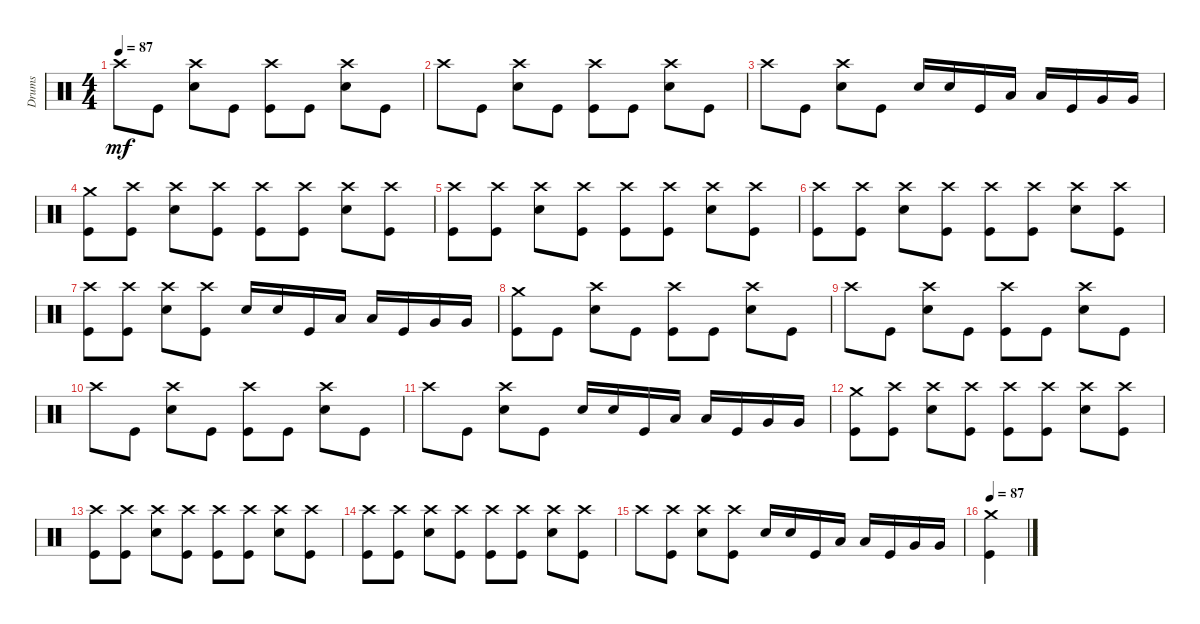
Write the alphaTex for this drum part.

\track ("Drums" "Drums") {instrument percussion}
\staff {score}
\articulation defaults
\ts (4 4)
\tempo 87
\clef neutral
\ks c "Crash high (hit)".8{dy mf} "Kick (hit)".8
("Crash high (hit)" "Electric Snare (hit)").8 "Kick (hit)".8 ("Crash high (hit)" "Kick (hit)").8 "Kick (hit)".8 ("Crash high (hit)" "Electric Snare (hit)").8 "Kick (hit)".8 |
"Crash high (hit)".8 "Kick (hit)".8 ("Crash high (hit)" "Electric Snare (hit)").8 "Kick (hit)".8 ("Crash high (hit)" "Kick (hit)").8 "Kick (hit)".8 ("Crash high (hit)" "Electric Snare (hit)").8 "Kick (hit)".8 |
"Crash high (hit)".8 "Kick (hit)".8 ("Crash high (hit)" "Electric Snare (hit)").8 "Kick (hit)".8 "Electric Snare (hit)".16 "Electric Snare (hit)".16 "Kick (hit)".16 "Low Tom (hit)".16 "Low Tom (hit)".16 "Kick (hit)".16 "Very Low Tom (hit)".16 "Very Low Tom (hit)".16 |
("Crash medium (hit)" "Kick (hit)").8{volume 13} ("Crash high (hit)" "Kick (hit)").8 ("Crash high (hit)" "Electric Snare (hit)").8 ("Crash high (hit)" "Kick (hit)").8 ("Crash high (hit)" "Kick (hit)").8 ("Crash high (hit)" "Kick (hit)").8 ("Crash high (hit)" "Electric Snare (hit)").8 ("Crash high (hit)" "Kick (hit)").8 |
("Crash high (hit)" "Kick (hit)").8 ("Crash high (hit)" "Kick (hit)").8 ("Crash high (hit)" "Electric Snare (hit)").8 ("Crash high (hit)" "Kick (hit)").8 ("Crash high (hit)" "Kick (hit)").8 ("Crash high (hit)" "Kick (hit)").8 ("Crash high (hit)" "Electric Snare (hit)").8 ("Crash high (hit)" "Kick (hit)").8 |
("Crash high (hit)" "Kick (hit)").8 ("Crash high (hit)" "Kick (hit)").8 ("Crash high (hit)" "Electric Snare (hit)").8 ("Crash high (hit)" "Kick (hit)").8 ("Crash high (hit)" "Kick (hit)").8 ("Crash high (hit)" "Kick (hit)").8 ("Crash high (hit)" "Electric Snare (hit)").8 ("Crash high (hit)" "Kick (hit)").8 |
("Crash high (hit)" "Kick (hit)").8 ("Crash high (hit)" "Kick (hit)").8 ("Crash high (hit)" "Electric Snare (hit)").8 ("Crash high (hit)" "Kick (hit)").8 "Electric Snare (hit)".16 "Electric Snare (hit)".16 "Kick (hit)".16 "Low Tom (hit)".16 "Low Tom (hit)".16 "Kick (hit)".16 "Very Low Tom (hit)".16 "Very Low Tom (hit)".16 |
("Crash medium (hit)" "Kick (hit)").8{volume 13} "Kick (hit)".8 ("Crash high (hit)" "Electric Snare (hit)").8 "Kick (hit)".8 ("Crash high (hit)" "Kick (hit)").8 "Kick (hit)".8 ("Crash high (hit)" "Electric Snare (hit)").8 "Kick (hit)".8 |
"Crash high (hit)".8 "Kick (hit)".8 ("Crash high (hit)" "Electric Snare (hit)").8 "Kick (hit)".8 ("Crash high (hit)" "Kick (hit)").8 "Kick (hit)".8 ("Crash high (hit)" "Electric Snare (hit)").8 "Kick (hit)".8 |
"Crash high (hit)".8 "Kick (hit)".8 ("Crash high (hit)" "Electric Snare (hit)").8 "Kick (hit)".8 ("Crash high (hit)" "Kick (hit)").8 "Kick (hit)".8 ("Crash high (hit)" "Electric Snare (hit)").8 "Kick (hit)".8 |
"Crash high (hit)".8 "Kick (hit)".8 ("Crash high (hit)" "Electric Snare (hit)").8 "Kick (hit)".8 "Electric Snare (hit)".16 "Electric Snare (hit)".16 "Kick (hit)".16 "Low Tom (hit)".16 "Low Tom (hit)".16 "Kick (hit)".16 "Very Low Tom (hit)".16 "Very Low Tom (hit)".16 |
("Crash medium (hit)" "Kick (hit)").8{volume 13} ("Crash high (hit)" "Kick (hit)").8 ("Crash high (hit)" "Electric Snare (hit)").8 ("Crash high (hit)" "Kick (hit)").8 ("Crash high (hit)" "Kick (hit)").8 ("Crash high (hit)" "Kick (hit)").8 ("Crash high (hit)" "Electric Snare (hit)").8 ("Crash high (hit)" "Kick (hit)").8 |
("Crash high (hit)" "Kick (hit)").8 ("Crash high (hit)" "Kick (hit)").8 ("Crash high (hit)" "Electric Snare (hit)").8 ("Crash high (hit)" "Kick (hit)").8 ("Crash high (hit)" "Kick (hit)").8 ("Crash high (hit)" "Kick (hit)").8 ("Crash high (hit)" "Electric Snare (hit)").8 ("Crash high (hit)" "Kick (hit)").8 |
("Crash high (hit)" "Kick (hit)").8 ("Crash high (hit)" "Kick (hit)").8 ("Crash high (hit)" "Electric Snare (hit)").8 ("Crash high (hit)" "Kick (hit)").8 ("Crash high (hit)" "Kick (hit)").8 ("Crash high (hit)" "Kick (hit)").8 ("Crash high (hit)" "Electric Snare (hit)").8 ("Crash high (hit)" "Kick (hit)").8 |
"Crash high (hit)".8 ("Crash high (hit)" "Kick (hit)").8 ("Crash high (hit)" "Electric Snare (hit)").8 ("Crash high (hit)" "Kick (hit)").8 "Electric Snare (hit)".16 "Electric Snare (hit)".16 "Kick (hit)".16 "Low Tom (hit)".16 "Low Tom (hit)".16 "Kick (hit)".16 "Very Low Tom (hit)".16 "Very Low Tom (hit)".16 |
\tempo 87
("Crash medium (hit)" "Kick (hit)").4
